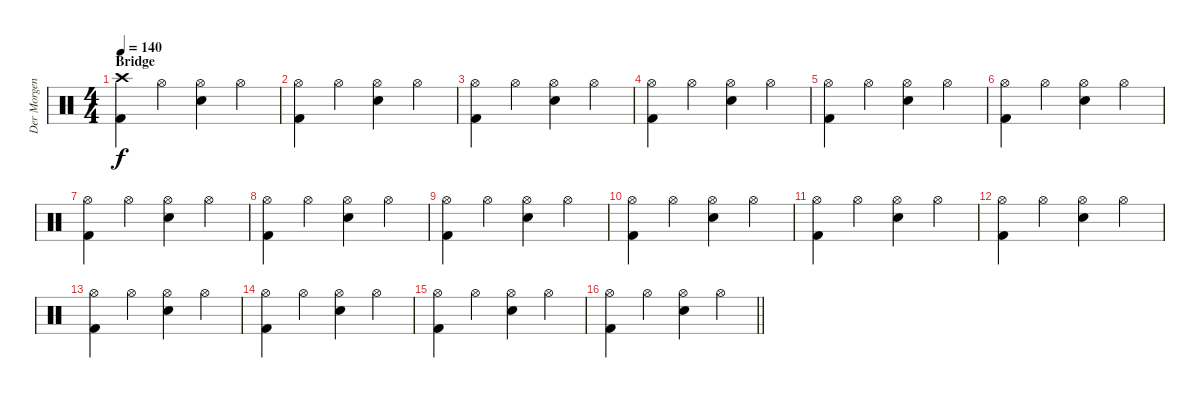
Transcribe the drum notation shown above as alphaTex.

\track ("Der Morgenstern" "Der Morgen") {instrument percussion}
\staff {score}
\articulation defaults
\ts (4 4)
\section ("" "Bridge")
\tempo 140
\clef neutral
\ks c
("Crash high (hit)" "Kick (hit) 2").4{dy f} "Hi-Hat (open)".4 ("Hi-Hat (open)" "Electric Snare (hit)").4 "Hi-Hat (open)".4 |
("Hi-Hat (open)" "Kick (hit) 2").4 "Hi-Hat (open)".4 ("Hi-Hat (open)" "Electric Snare (hit)").4 "Hi-Hat (open)".4 |
("Hi-Hat (open)" "Kick (hit) 2").4 "Hi-Hat (open)".4 ("Hi-Hat (open)" "Electric Snare (hit)").4 "Hi-Hat (open)".4 |
("Hi-Hat (open)" "Kick (hit) 2").4 "Hi-Hat (open)".4 ("Hi-Hat (open)" "Electric Snare (hit)").4 "Hi-Hat (open)".4 |
("Hi-Hat (open)" "Kick (hit) 2").4 "Hi-Hat (open)".4 ("Hi-Hat (open)" "Electric Snare (hit)").4 "Hi-Hat (open)".4 |
("Hi-Hat (open)" "Kick (hit) 2").4 "Hi-Hat (open)".4 ("Hi-Hat (open)" "Electric Snare (hit)").4 "Hi-Hat (open)".4 |
("Hi-Hat (open)" "Kick (hit) 2").4 "Hi-Hat (open)".4 ("Hi-Hat (open)" "Electric Snare (hit)").4 "Hi-Hat (open)".4 |
("Hi-Hat (open)" "Kick (hit) 2").4 "Hi-Hat (open)".4 ("Hi-Hat (open)" "Electric Snare (hit)").4 "Hi-Hat (open)".4 |
("Hi-Hat (open)" "Kick (hit) 2").4 "Hi-Hat (open)".4 ("Hi-Hat (open)" "Electric Snare (hit)").4 "Hi-Hat (open)".4 |
("Hi-Hat (open)" "Kick (hit) 2").4 "Hi-Hat (open)".4 ("Hi-Hat (open)" "Electric Snare (hit)").4 "Hi-Hat (open)".4 |
("Hi-Hat (open)" "Kick (hit) 2").4 "Hi-Hat (open)".4 ("Hi-Hat (open)" "Electric Snare (hit)").4 "Hi-Hat (open)".4 |
("Hi-Hat (open)" "Kick (hit) 2").4 "Hi-Hat (open)".4 ("Hi-Hat (open)" "Electric Snare (hit)").4 "Hi-Hat (open)".4 |
("Hi-Hat (open)" "Kick (hit) 2").4 "Hi-Hat (open)".4 ("Hi-Hat (open)" "Electric Snare (hit)").4 "Hi-Hat (open)".4 |
("Hi-Hat (open)" "Kick (hit) 2").4 "Hi-Hat (open)".4 ("Hi-Hat (open)" "Electric Snare (hit)").4 "Hi-Hat (open)".4 |
("Hi-Hat (open)" "Kick (hit) 2").4 "Hi-Hat (open)".4 ("Hi-Hat (open)" "Electric Snare (hit)").4 "Hi-Hat (open)".4 |
\barLineRight lightlight
("Hi-Hat (open)" "Kick (hit) 2").4 "Hi-Hat (open)".4 ("Hi-Hat (open)" "Electric Snare (hit)").4 "Hi-Hat (open)".4
